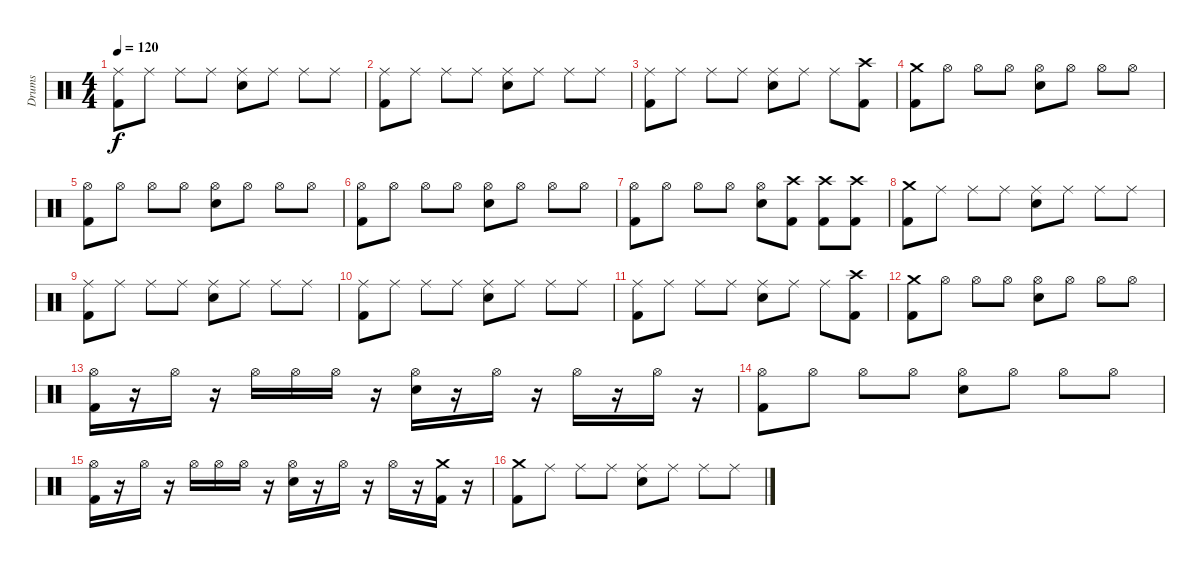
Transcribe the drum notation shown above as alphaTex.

\track ("Drums" "Drums") {instrument percussion}
\staff {score}
\articulation defaults
\ts (4 4)
\tempo 120
\clef neutral
\ks c
("Ride (middle)" "Kick (hit) 2").8{dy f} "Ride (middle)".8 "Ride (middle)".8 "Ride (middle)".8 ("Ride (middle)" "Electric Snare (hit)").8 "Ride (middle)".8 "Ride (middle)".8 "Ride (middle)".8 |
("Ride (middle)" "Kick (hit) 2").8 "Ride (middle)".8 "Ride (middle)".8 "Ride (middle)".8 ("Ride (middle)" "Electric Snare (hit)").8 "Ride (middle)".8 "Ride (middle)".8 "Ride (middle)".8 |
("Ride (middle)" "Kick (hit) 2").8 "Ride (middle)".8 "Ride (middle)".8 "Ride (middle)".8 ("Ride (middle)" "Electric Snare (hit)").8 "Ride (middle)".8 "Ride (middle)".8 ("Crash high (hit)" "Kick (hit) 2").8 |
("Crash medium (hit)" "Kick (hit) 2").8 "Hi-Hat (open)".8 "Hi-Hat (open)".8 "Hi-Hat (open)".8 ("Hi-Hat (open)" "Electric Snare (hit)").8 "Hi-Hat (open)".8 "Hi-Hat (open)".8 "Hi-Hat (open)".8 |
("Hi-Hat (open)" "Kick (hit) 2").8 "Hi-Hat (open)".8 "Hi-Hat (open)".8 "Hi-Hat (open)".8 ("Hi-Hat (open)" "Electric Snare (hit)").8 "Hi-Hat (open)".8 "Hi-Hat (open)".8 "Hi-Hat (open)".8 |
("Hi-Hat (open)" "Kick (hit) 2").8 "Hi-Hat (open)".8 "Hi-Hat (open)".8 "Hi-Hat (open)".8 ("Hi-Hat (open)" "Electric Snare (hit)").8 "Hi-Hat (open)".8 "Hi-Hat (open)".8 "Hi-Hat (open)".8 |
("Hi-Hat (open)" "Kick (hit) 2").8 "Hi-Hat (open)".8 "Hi-Hat (open)".8 "Hi-Hat (open)".8 ("Hi-Hat (open)" "Electric Snare (hit)").8 ("Crash high (hit)" "Kick (hit) 2").8 ("Crash high (hit)" "Kick (hit) 2").8 ("Crash high (hit)" "Kick (hit) 2").8 |
("Crash medium (hit)" "Kick (hit) 2").8 "Ride (middle)".8 "Ride (middle)".8 "Ride (middle)".8 ("Ride (middle)" "Electric Snare (hit)").8 "Ride (middle)".8 "Ride (middle)".8 "Ride (middle)".8 |
("Ride (middle)" "Kick (hit) 2").8 "Ride (middle)".8 "Ride (middle)".8 "Ride (middle)".8 ("Ride (middle)" "Electric Snare (hit)").8 "Ride (middle)".8 "Ride (middle)".8 "Ride (middle)".8 |
("Ride (middle)" "Kick (hit) 2").8 "Ride (middle)".8 "Ride (middle)".8 "Ride (middle)".8 ("Ride (middle)" "Electric Snare (hit)").8 "Ride (middle)".8 "Ride (middle)".8 "Ride (middle)".8 |
("Ride (middle)" "Kick (hit) 2").8 "Ride (middle)".8 "Ride (middle)".8 "Ride (middle)".8 ("Ride (middle)" "Electric Snare (hit)").8 "Ride (middle)".8 "Ride (middle)".8 ("Crash high (hit)" "Kick (hit) 2").8 |
("Crash medium (hit)" "Kick (hit) 2").8 "Hi-Hat (open)".8 "Hi-Hat (open)".8 "Hi-Hat (open)".8 ("Hi-Hat (open)" "Electric Snare (hit)").8 "Hi-Hat (open)".8 "Hi-Hat (open)".8 "Hi-Hat (open)".8 |
("Hi-Hat (open)" "Kick (hit) 2").16 r.16 "Hi-Hat (open)".16 r.16 "Hi-Hat (open)".16 "Hi-Hat (open)".16 "Hi-Hat (open)".16 r.16 ("Hi-Hat (open)" "Electric Snare (hit)").16 r.16 "Hi-Hat (open)".16 r.16 "Hi-Hat (open)".16 r.16 "Hi-Hat (open)".16 r.16 |
("Hi-Hat (open)" "Kick (hit) 2").8 "Hi-Hat (open)".8 "Hi-Hat (open)".8 "Hi-Hat (open)".8 ("Hi-Hat (open)" "Electric Snare (hit)").8 "Hi-Hat (open)".8 "Hi-Hat (open)".8 "Hi-Hat (open)".8 |
("Hi-Hat (open)" "Kick (hit) 2").16 r.16 "Hi-Hat (open)".16 r.16 "Hi-Hat (open)".16 "Hi-Hat (open)".16 "Hi-Hat (open)".16 r.16 ("Hi-Hat (open)" "Electric Snare (hit)").16 r.16 "Hi-Hat (open)".16 r.16 "Hi-Hat (open)".16 r.16 ("Crash medium (hit)" "Kick (hit) 2").16 r.16 |
("Crash medium (hit)" "Kick (hit) 2").8 "Ride (middle)".8 "Ride (middle)".8 "Ride (middle)".8 ("Ride (middle)" "Electric Snare (hit)").8 "Ride (middle)".8 "Ride (middle)".8 "Ride (middle)".8
